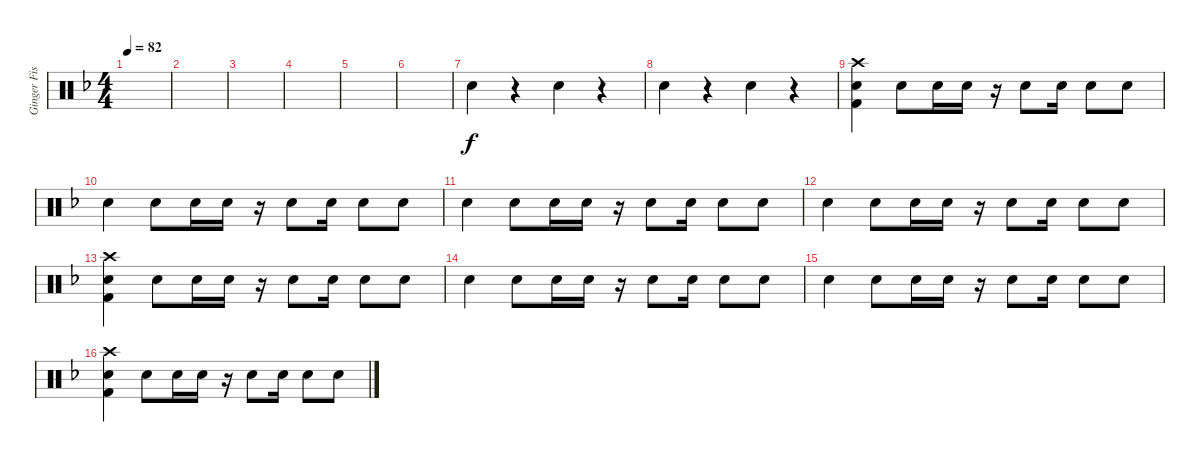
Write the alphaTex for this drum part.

\track ("Ginger Fish" "Ginger Fis") {instrument percussion}
\staff {score}
\articulation defaults
\ts (4 4)
\tempo 82
\clef neutral
\ks f
|
|
|
|
|
|
"Electric Snare (hit)".4 r.4 "Electric Snare (hit)".4 r.4 |
"Electric Snare (hit)".4 r.4 "Electric Snare (hit)".4 r.4 |
("Kick (hit) 2" "Crash high (hit)" "Electric Snare (hit)").4{volume 13} "Electric Snare (hit)".8 "Electric Snare (hit)".16 "Electric Snare (hit)".16 r.16 "Electric Snare (hit)".8 "Electric Snare (hit)".16 "Electric Snare (hit)".8 "Electric Snare (hit)".8 |
"Electric Snare (hit)".4 "Electric Snare (hit)".8 "Electric Snare (hit)".16 "Electric Snare (hit)".16 r.16 "Electric Snare (hit)".8 "Electric Snare (hit)".16 "Electric Snare (hit)".8 "Electric Snare (hit)".8 |
"Electric Snare (hit)".4 "Electric Snare (hit)".8 "Electric Snare (hit)".16 "Electric Snare (hit)".16 r.16 "Electric Snare (hit)".8 "Electric Snare (hit)".16 "Electric Snare (hit)".8 "Electric Snare (hit)".8 |
"Electric Snare (hit)".4 "Electric Snare (hit)".8 "Electric Snare (hit)".16 "Electric Snare (hit)".16 r.16 "Electric Snare (hit)".8 "Electric Snare (hit)".16 "Electric Snare (hit)".8 "Electric Snare (hit)".8 |
("Kick (hit) 2" "Crash high (hit)" "Electric Snare (hit)").4{volume 13} "Electric Snare (hit)".8 "Electric Snare (hit)".16 "Electric Snare (hit)".16 r.16 "Electric Snare (hit)".8 "Electric Snare (hit)".16 "Electric Snare (hit)".8 "Electric Snare (hit)".8 |
"Electric Snare (hit)".4 "Electric Snare (hit)".8 "Electric Snare (hit)".16 "Electric Snare (hit)".16 r.16 "Electric Snare (hit)".8 "Electric Snare (hit)".16 "Electric Snare (hit)".8 "Electric Snare (hit)".8 |
"Electric Snare (hit)".4 "Electric Snare (hit)".8 "Electric Snare (hit)".16 "Electric Snare (hit)".16 r.16 "Electric Snare (hit)".8 "Electric Snare (hit)".16 "Electric Snare (hit)".8 "Electric Snare (hit)".8 |
("Kick (hit) 2" "Crash high (hit)" "Electric Snare (hit)").4{volume 13} "Electric Snare (hit)".8 "Electric Snare (hit)".16 "Electric Snare (hit)".16 r.16 "Electric Snare (hit)".8 "Electric Snare (hit)".16 "Electric Snare (hit)".8 "Electric Snare (hit)".8
